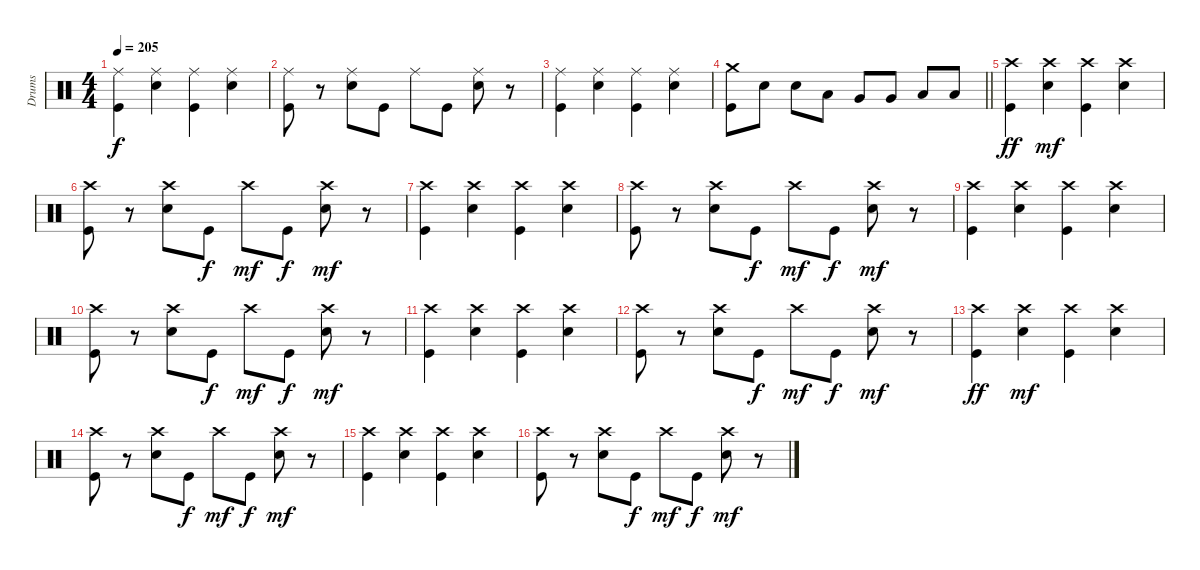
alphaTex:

\track ("Drums" "Drums") {instrument percussion}
\staff {score}
\articulation defaults
\ts (4 4)
\tempo 205
\clef neutral
\ks c
("Ride (middle)" "Kick (hit)").4{dy f} ("Ride (middle)" "Electric Snare (hit)").4 ("Ride (middle)" "Kick (hit)").4 ("Ride (middle)" "Electric Snare (hit)").4 |
("Ride (middle)" "Kick (hit)").8 r.8 ("Ride (middle)" "Electric Snare (hit)").8 "Kick (hit)".8 "Ride (middle)".8 "Kick (hit)".8 ("Ride (middle)" "Electric Snare (hit)").8 r.8 |
("Ride (middle)" "Kick (hit)").4 ("Ride (middle)" "Electric Snare (hit)").4 ("Ride (middle)" "Kick (hit)").4 ("Ride (middle)" "Electric Snare (hit)").4 |
\barLineRight lightlight
("Crash medium (hit)" "Kick (hit)").8 "Electric Snare (hit)".8 "Electric Snare (hit)".8 "Low Tom (hit)".8 "Very Low Tom (hit)".8 "Very Low Tom (hit)".8 "Low Floor Tom (hit)".8 "Low Floor Tom (hit)".8 |
("Crash high (hit)" "Kick (hit)").4{dy ff} ("Crash high (hit)" "Electric Snare (hit)").4{dy mf} ("Crash high (hit)" "Kick (hit)").4 ("Crash high (hit)" "Electric Snare (hit)").4 |
("Crash high (hit)" "Kick (hit)").8 r.8 ("Crash high (hit)" "Electric Snare (hit)").8 "Kick (hit)".8{dy f} "Crash high (hit)".8{dy mf} "Kick (hit)".8{dy f} ("Crash high (hit)" "Electric Snare (hit)").8{dy mf} r.8 |
("Crash high (hit)" "Kick (hit)").4 ("Crash high (hit)" "Electric Snare (hit)").4 ("Crash high (hit)" "Kick (hit)").4 ("Crash high (hit)" "Electric Snare (hit)").4 |
("Crash high (hit)" "Kick (hit)").8 r.8 ("Crash high (hit)" "Electric Snare (hit)").8 "Kick (hit)".8{dy f} "Crash high (hit)".8{dy mf} "Kick (hit)".8{dy f} ("Crash high (hit)" "Electric Snare (hit)").8{dy mf} r.8 |
("Crash high (hit)" "Kick (hit)").4 ("Crash high (hit)" "Electric Snare (hit)").4 ("Crash high (hit)" "Kick (hit)").4 ("Crash high (hit)" "Electric Snare (hit)").4 |
("Crash high (hit)" "Kick (hit)").8 r.8 ("Crash high (hit)" "Electric Snare (hit)").8 "Kick (hit)".8{dy f} "Crash high (hit)".8{dy mf} "Kick (hit)".8{dy f} ("Crash high (hit)" "Electric Snare (hit)").8{dy mf} r.8 |
("Crash high (hit)" "Kick (hit)").4 ("Crash high (hit)" "Electric Snare (hit)").4 ("Crash high (hit)" "Kick (hit)").4 ("Crash high (hit)" "Electric Snare (hit)").4 |
("Crash high (hit)" "Kick (hit)").8 r.8 ("Crash high (hit)" "Electric Snare (hit)").8 "Kick (hit)".8{dy f} "Crash high (hit)".8{dy mf} "Kick (hit)".8{dy f} ("Crash high (hit)" "Electric Snare (hit)").8{dy mf} r.8 |
("Crash high (hit)" "Kick (hit)").4{dy ff} ("Crash high (hit)" "Electric Snare (hit)").4{dy mf} ("Crash high (hit)" "Kick (hit)").4 ("Crash high (hit)" "Electric Snare (hit)").4 |
("Crash high (hit)" "Kick (hit)").8 r.8 ("Crash high (hit)" "Electric Snare (hit)").8 "Kick (hit)".8{dy f} "Crash high (hit)".8{dy mf} "Kick (hit)".8{dy f} ("Crash high (hit)" "Electric Snare (hit)").8{dy mf} r.8 |
("Crash high (hit)" "Kick (hit)").4 ("Crash high (hit)" "Electric Snare (hit)").4 ("Crash high (hit)" "Kick (hit)").4 ("Crash high (hit)" "Electric Snare (hit)").4 |
("Crash high (hit)" "Kick (hit)").8 r.8 ("Crash high (hit)" "Electric Snare (hit)").8 "Kick (hit)".8{dy f} "Crash high (hit)".8{dy mf} "Kick (hit)".8{dy f} ("Crash high (hit)" "Electric Snare (hit)").8{dy mf} r.8
